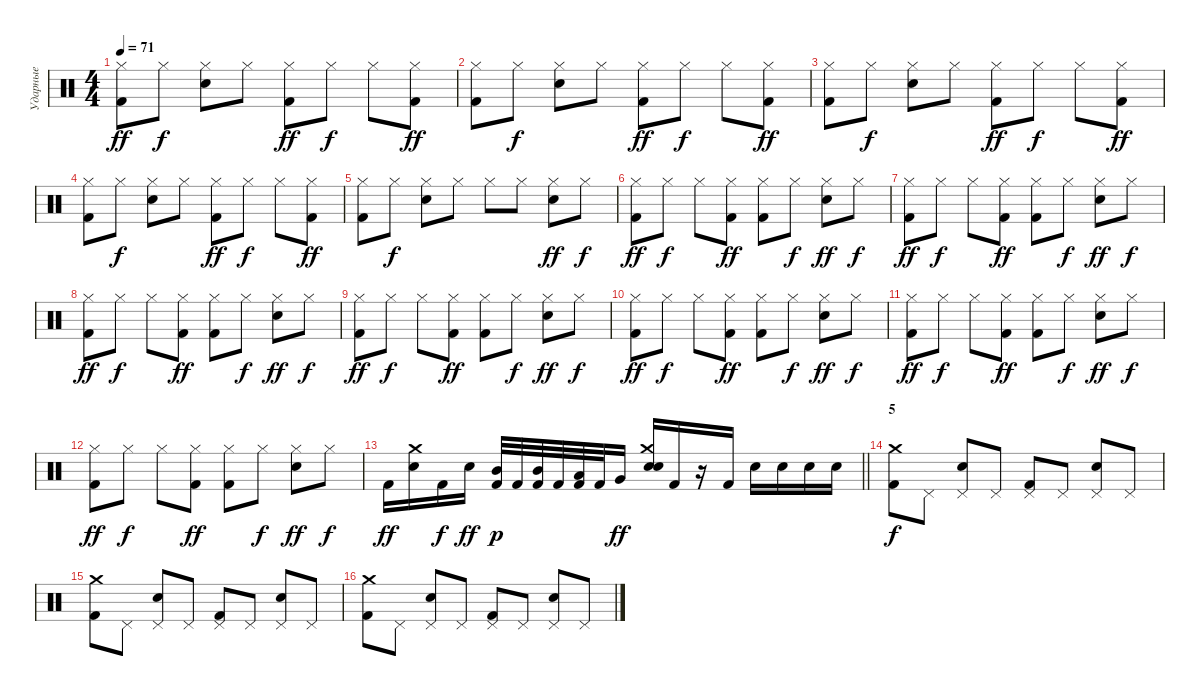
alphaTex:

\track ("Ударные" "Ударные") {instrument percussion}
\staff {score}
\articulation defaults
\ts (4 4)
\tempo 71
\clef neutral
\ks c
("Hi-Hat (closed)" "Kick (hit) 2").8{dy ff} "Hi-Hat (closed)".8{dy f} ("Hi-Hat (closed)" "Snare (hit) 2").8 "Hi-Hat (closed)".8 ("Hi-Hat (closed)" "Kick (hit) 2").8{dy ff} "Hi-Hat (closed)".8{dy f} "Hi-Hat (closed)".8 ("Hi-Hat (closed)" "Kick (hit) 2").8{dy ff} |
("Hi-Hat (closed)" "Kick (hit) 2").8 "Hi-Hat (closed)".8{dy f} ("Hi-Hat (closed)" "Snare (hit) 2").8 "Hi-Hat (closed)".8 ("Hi-Hat (closed)" "Kick (hit) 2").8{dy ff} "Hi-Hat (closed)".8{dy f} "Hi-Hat (closed)".8 ("Hi-Hat (closed)" "Kick (hit) 2").8{dy ff} |
("Hi-Hat (closed)" "Kick (hit) 2").8 "Hi-Hat (closed)".8{dy f} ("Hi-Hat (closed)" "Snare (hit) 2").8 "Hi-Hat (closed)".8 ("Hi-Hat (closed)" "Kick (hit) 2").8{dy ff} "Hi-Hat (closed)".8{dy f} "Hi-Hat (closed)".8 ("Hi-Hat (closed)" "Kick (hit) 2").8{dy ff} |
("Hi-Hat (closed)" "Kick (hit) 2").8 "Hi-Hat (closed)".8{dy f} ("Hi-Hat (closed)" "Snare (hit) 2").8 "Hi-Hat (closed)".8 ("Hi-Hat (closed)" "Kick (hit) 2").8{dy ff} "Hi-Hat (closed)".8{dy f} "Hi-Hat (closed)".8 ("Hi-Hat (closed)" "Kick (hit) 2").8{dy ff} |
("Hi-Hat (closed)" "Kick (hit) 2").8 "Hi-Hat (closed)".8{dy f} ("Hi-Hat (closed)" "Snare (hit) 2").8 "Hi-Hat (closed)".8 "Hi-Hat (closed)".8 "Hi-Hat (closed)".8 ("Hi-Hat (closed)" "Snare (hit) 2").8{dy ff} "Hi-Hat (closed)".8{dy f} |
("Hi-Hat (closed)" "Kick (hit) 2").8{dy ff} "Hi-Hat (closed)".8{dy f} "Hi-Hat (closed)".8 ("Hi-Hat (closed)" "Kick (hit) 2").8{dy ff} ("Hi-Hat (closed)" "Kick (hit) 2").8 "Hi-Hat (closed)".8{dy f} ("Hi-Hat (closed)" "Snare (hit) 2").8{dy ff} "Hi-Hat (closed)".8{dy f} |
("Hi-Hat (closed)" "Kick (hit) 2").8{dy ff} "Hi-Hat (closed)".8{dy f} "Hi-Hat (closed)".8 ("Hi-Hat (closed)" "Kick (hit) 2").8{dy ff} ("Hi-Hat (closed)" "Kick (hit) 2").8 "Hi-Hat (closed)".8{dy f} ("Hi-Hat (closed)" "Snare (hit) 2").8{dy ff} "Hi-Hat (closed)".8{dy f} |
("Hi-Hat (closed)" "Kick (hit) 2").8{dy ff} "Hi-Hat (closed)".8{dy f} "Hi-Hat (closed)".8 ("Hi-Hat (closed)" "Kick (hit) 2").8{dy ff} ("Hi-Hat (closed)" "Kick (hit) 2").8 "Hi-Hat (closed)".8{dy f} ("Hi-Hat (closed)" "Snare (hit) 2").8{dy ff} "Hi-Hat (closed)".8{dy f} |
("Hi-Hat (closed)" "Kick (hit) 2").8{dy ff} "Hi-Hat (closed)".8{dy f} "Hi-Hat (closed)".8 ("Hi-Hat (closed)" "Kick (hit) 2").8{dy ff} ("Hi-Hat (closed)" "Kick (hit) 2").8 "Hi-Hat (closed)".8{dy f} ("Hi-Hat (closed)" "Snare (hit) 2").8{dy ff} "Hi-Hat (closed)".8{dy f} |
("Hi-Hat (closed)" "Kick (hit) 2").8{dy ff} "Hi-Hat (closed)".8{dy f} "Hi-Hat (closed)".8 ("Hi-Hat (closed)" "Kick (hit) 2").8{dy ff} ("Hi-Hat (closed)" "Kick (hit) 2").8 "Hi-Hat (closed)".8{dy f} ("Hi-Hat (closed)" "Snare (hit) 2").8{dy ff} "Hi-Hat (closed)".8{dy f} |
("Hi-Hat (closed)" "Kick (hit) 2").8{dy ff} "Hi-Hat (closed)".8{dy f} "Hi-Hat (closed)".8 ("Hi-Hat (closed)" "Kick (hit) 2").8{dy ff} ("Hi-Hat (closed)" "Kick (hit) 2").8 "Hi-Hat (closed)".8{dy f} ("Hi-Hat (closed)" "Snare (hit) 2").8{dy ff} "Hi-Hat (closed)".8{dy f} |
("Hi-Hat (closed)" "Kick (hit) 2").8{dy ff} "Hi-Hat (closed)".8{dy f} "Hi-Hat (closed)".8 ("Hi-Hat (closed)" "Kick (hit) 2").8{dy ff} ("Hi-Hat (closed)" "Kick (hit) 2").8 "Hi-Hat (closed)".8{dy f} ("Hi-Hat (closed)" "Snare (hit) 2").8{dy ff} "Hi-Hat (closed)".8{dy f} |
\barLineRight lightlight "Kick (hit) 2".16{dy ff}
("Crash medium (hit)" "Snare (hit) 2").16 "Kick (hit) 2".16{dy f} "Snare (hit) 2".16{dy ff} ("Mid Tom (hit)" "Kick (hit) 2").32{dy p} "Kick (hit) 2".32 ("Mid Tom (hit)" "Kick (hit) 2").32 "Kick (hit) 2".32 ("Low Tom (hit)" "Kick (hit) 2").32 "Kick (hit) 2".32 "Very Low Tom (hit)".16{dy ff} ("Crash medium (hit)" "Snare (hit) 2" "Electric Snare (hit)").16 "Kick (hit) 2".16 r.16 "Kick (hit) 2".16 "Snare (hit) 2".16 "Snare (hit) 2".16 "Snare (hit) 2".16 "Snare (hit) 2".16 |
\section ("" "5")
("Crash medium (hit)" "Kick (hit) 2").8{dy f} "Pedal Hi-Hat (hit)".8 ("Pedal Hi-Hat (hit)" "Snare (hit) 2").8 "Pedal Hi-Hat (hit)".8 ("Pedal Hi-Hat (hit)" "Kick (hit) 2").8 "Pedal Hi-Hat (hit)".8 ("Pedal Hi-Hat (hit)" "Snare (hit) 2").8 "Pedal Hi-Hat (hit)".8 |
("Crash medium (hit)" "Kick (hit) 2").8 "Pedal Hi-Hat (hit)".8 ("Pedal Hi-Hat (hit)" "Snare (hit) 2").8 "Pedal Hi-Hat (hit)".8 ("Pedal Hi-Hat (hit)" "Kick (hit) 2").8 "Pedal Hi-Hat (hit)".8 ("Pedal Hi-Hat (hit)" "Snare (hit) 2").8 "Pedal Hi-Hat (hit)".8 |
("Crash medium (hit)" "Kick (hit) 2").8 "Pedal Hi-Hat (hit)".8 ("Pedal Hi-Hat (hit)" "Snare (hit) 2").8 "Pedal Hi-Hat (hit)".8 ("Pedal Hi-Hat (hit)" "Kick (hit) 2").8 "Pedal Hi-Hat (hit)".8 ("Pedal Hi-Hat (hit)" "Snare (hit) 2").8 "Pedal Hi-Hat (hit)".8
